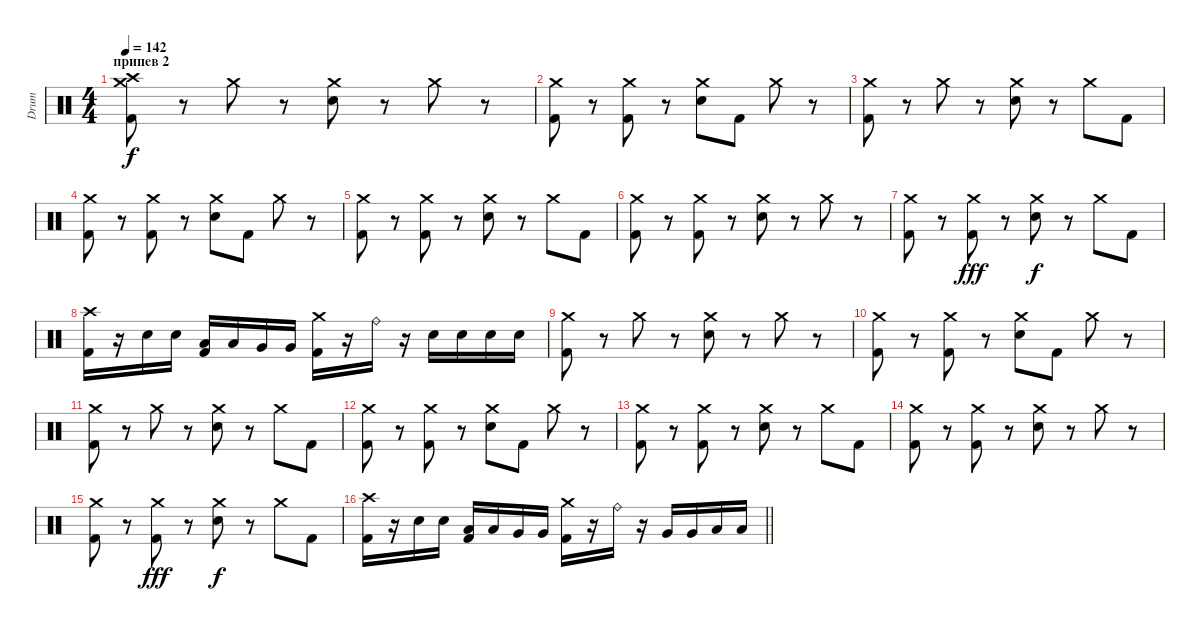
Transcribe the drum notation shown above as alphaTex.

\track ("Drum" "Drum") {instrument percussion}
\staff {score}
\articulation defaults
\ts (4 4)
\section ("" "припев 2")
\tempo 142
\clef neutral
\ks c
("Crash high (hit)" "Crash medium (hit)" "Kick (hit) 2").8{dy f} r.8 "Crash medium (hit)".8 r.8 ("Crash medium (hit)" "Snare (hit) 2").8 r.8 "Crash medium (hit)".8 r.8 |
("Crash medium (hit)" "Kick (hit) 2").8 r.8 ("Crash medium (hit)" "Kick (hit) 2").8 r.8 ("Crash medium (hit)" "Snare (hit) 2").8 "Kick (hit) 2".8 "Crash medium (hit)".8 r.8 |
("Crash medium (hit)" "Kick (hit) 2").8 r.8 "Crash medium (hit)".8 r.8 ("Crash medium (hit)" "Snare (hit) 2").8 r.8 "Crash medium (hit)".8 "Kick (hit) 2".8 |
("Crash medium (hit)" "Kick (hit) 2").8 r.8 ("Crash medium (hit)" "Kick (hit) 2").8 r.8 ("Crash medium (hit)" "Snare (hit) 2").8 "Kick (hit) 2".8 "Crash medium (hit)".8 r.8 |
("Crash medium (hit)" "Kick (hit) 2").8 r.8 ("Crash medium (hit)" "Kick (hit) 2").8 r.8 ("Crash medium (hit)" "Snare (hit) 2").8 r.8 "Crash medium (hit)".8 "Kick (hit) 2".8 |
("Crash medium (hit)" "Kick (hit) 2").8 r.8 ("Crash medium (hit)" "Kick (hit) 2").8 r.8 ("Crash medium (hit)" "Snare (hit) 2").8 r.8 "Crash medium (hit)".8 r.8 |
("Crash medium (hit)" "Kick (hit) 2").8 r.8 ("Crash medium (hit)" "Kick (hit) 2").8{dy fff} r.8 ("Crash medium (hit)" "Snare (hit) 2").8{dy f} r.8 "Crash medium (hit)".8 "Kick (hit) 2".8 |
("Crash high (hit)" "Kick (hit) 2").16 r.16 "Snare (hit) 2".16 "Snare (hit) 2".16 ("Kick (hit) 2" "Low Tom (hit)").16 "Low Tom (hit)".16 "Very Low Tom (hit)".16 "Very Low Tom (hit)".16 ("Crash medium (hit)" "Kick (hit) 2").16 r.16 "Ride (bell)".16 r.16 "Snare (hit) 2".16 "Snare (hit) 2".16 "Snare (hit) 2".16 "Snare (hit) 2".16 |
("Crash medium (hit)" "Kick (hit) 2").8 r.8 "Crash medium (hit)".8 r.8 ("Crash medium (hit)" "Snare (hit) 2").8 r.8 "Crash medium (hit)".8 r.8 |
("Crash medium (hit)" "Kick (hit) 2").8 r.8 ("Crash medium (hit)" "Kick (hit) 2").8 r.8 ("Crash medium (hit)" "Snare (hit) 2").8 "Kick (hit) 2".8 "Crash medium (hit)".8 r.8 |
("Crash medium (hit)" "Kick (hit) 2").8 r.8 "Crash medium (hit)".8 r.8 ("Crash medium (hit)" "Snare (hit) 2").8 r.8 "Crash medium (hit)".8 "Kick (hit) 2".8 |
("Crash medium (hit)" "Kick (hit) 2").8 r.8 ("Crash medium (hit)" "Kick (hit) 2").8 r.8 ("Crash medium (hit)" "Snare (hit) 2").8 "Kick (hit) 2".8 "Crash medium (hit)".8 r.8 |
("Crash medium (hit)" "Kick (hit) 2").8 r.8 ("Crash medium (hit)" "Kick (hit) 2").8 r.8 ("Crash medium (hit)" "Snare (hit) 2").8 r.8 "Crash medium (hit)".8 "Kick (hit) 2".8 |
("Crash medium (hit)" "Kick (hit) 2").8 r.8 ("Crash medium (hit)" "Kick (hit) 2").8 r.8 ("Crash medium (hit)" "Snare (hit) 2").8 r.8 "Crash medium (hit)".8 r.8 |
("Crash medium (hit)" "Kick (hit) 2").8 r.8 ("Crash medium (hit)" "Kick (hit) 2").8{dy fff} r.8 ("Crash medium (hit)" "Snare (hit) 2").8{dy f} r.8 "Crash medium (hit)".8 "Kick (hit) 2".8 |
\barLineRight lightlight
("Crash high (hit)" "Kick (hit) 2").16 r.16 "Snare (hit) 2".16 "Snare (hit) 2".16 ("Kick (hit) 2" "Low Tom (hit)").16 "Low Tom (hit)".16 "Very Low Tom (hit)".16 "Very Low Tom (hit)".16 ("Crash medium (hit)" "Kick (hit) 2").16 r.16 "Ride (bell)".16 r.16 "Very Low Tom (hit)".16 "Very Low Tom (hit)".16 "Low Floor Tom (hit)".16 "Low Floor Tom (hit)".16
